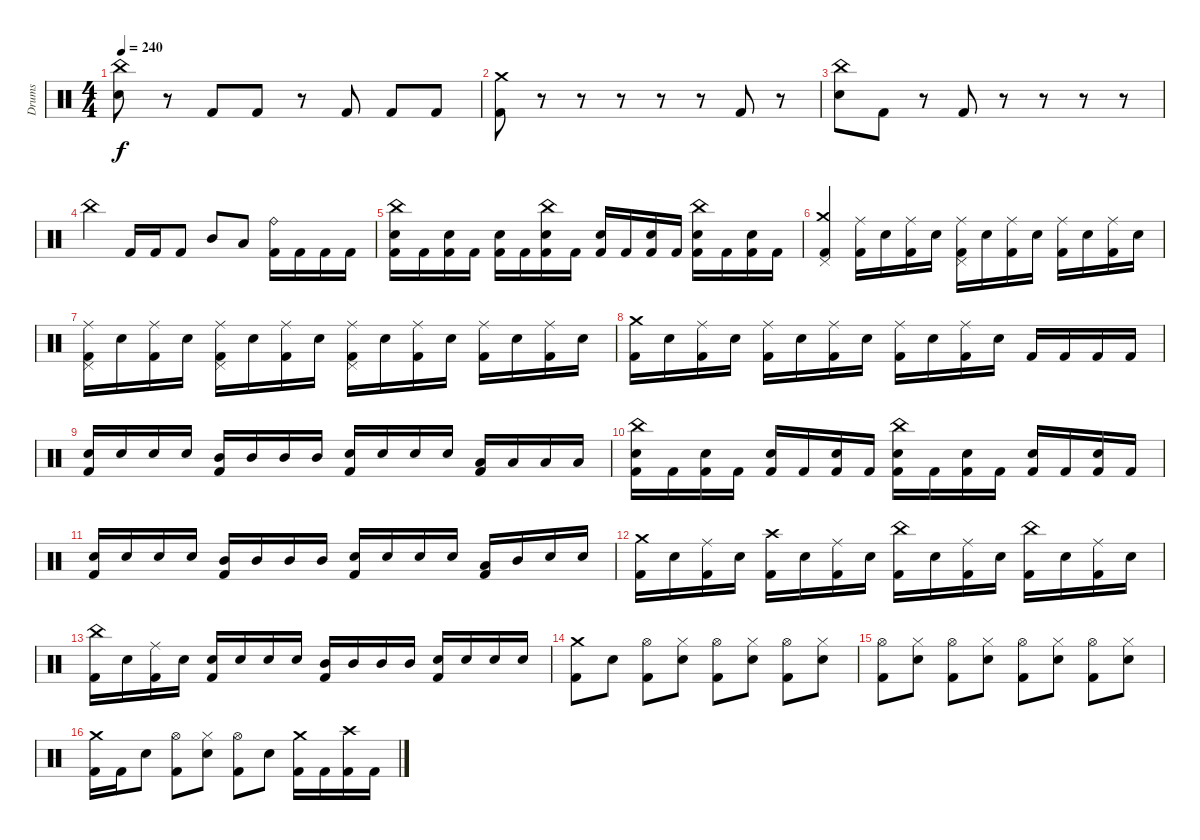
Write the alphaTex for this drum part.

\track ("Drums" "Drums") {instrument percussion}
\staff
\articulation defaults
\ts (4 4)
\tempo 240
\clef neutral
\ks c
("China (hit)" "Electric Snare (hit)").8{dy f} r.8 "Kick (hit) 2".8 "Kick (hit) 2".8 r.8 "Kick (hit) 2".8 "Kick (hit) 2".8 "Kick (hit) 2".8 |
("Crash medium (hit)" "Kick (hit) 2").8 r.8 r.8 r.8 r.8 r.8 "Kick (hit) 2".8 r.8 |
("China (hit)" "Electric Snare (hit)").8 "Kick (hit) 2".8 r.8 "Kick (hit) 2".8 r.8 r.8 r.8 r.8 |
"China (hit)".4 "Kick (hit) 2".16 "Kick (hit) 2".16 "Kick (hit) 2".8 "Mid Tom (hit)".8 "Low Tom (hit)".8 ("Ride (bell)" "Kick (hit) 2").16 "Kick (hit) 2".16 "Kick (hit) 2".16 "Kick (hit) 2".16 |
("China (hit)" "Electric Snare (hit)" "Kick (hit) 2").16 "Kick (hit) 2".16 ("Electric Snare (hit)" "Kick (hit) 2").16 "Kick (hit) 2".16 ("Electric Snare (hit)" "Kick (hit) 2").16 "Kick (hit) 2".16 ("China (hit)" "Electric Snare (hit)" "Kick (hit) 2").16 "Kick (hit) 2".16 ("Electric Snare (hit)" "Kick (hit) 2").16 "Kick (hit) 2".16 ("Electric Snare (hit)" "Kick (hit) 2").16 "Kick (hit) 2".16 ("China (hit)" "Electric Snare (hit)" "Kick (hit) 2").16 "Kick (hit) 2".16 ("Electric Snare (hit)" "Kick (hit) 2").16 "Kick (hit) 2".16 |
("Pedal Hi-Hat (hit)" "Crash medium (hit)" "Kick (hit) 2").4 ("Ride (middle)" "Kick (hit) 2").16 "Electric Snare (hit)".16 ("Ride (middle)" "Kick (hit) 2").16 "Electric Snare (hit)".16 ("Pedal Hi-Hat (hit)" "Ride (middle)" "Kick (hit) 2").16 "Electric Snare (hit)".16 ("Ride (middle)" "Kick (hit) 2").16 "Electric Snare (hit)".16 ("Ride (middle)" "Kick (hit) 2").16 "Electric Snare (hit)".16 ("Ride (middle)" "Kick (hit) 2").16 "Electric Snare (hit)".16 |
("Pedal Hi-Hat (hit)" "Ride (middle)" "Kick (hit) 2").16 "Electric Snare (hit)".16 ("Ride (middle)" "Kick (hit) 2").16 "Electric Snare (hit)".16 ("Pedal Hi-Hat (hit)" "Ride (middle)" "Kick (hit) 2").16 "Electric Snare (hit)".16 ("Ride (middle)" "Kick (hit) 2").16 "Electric Snare (hit)".16 ("Pedal Hi-Hat (hit)" "Ride (middle)" "Kick (hit) 2").16 "Electric Snare (hit)".16 ("Ride (middle)" "Kick (hit) 2").16 "Electric Snare (hit)".16 ("Ride (middle)" "Kick (hit) 2").16 "Electric Snare (hit)".16 ("Ride (middle)" "Kick (hit) 2").16 "Electric Snare (hit)".16 |
("Crash medium (hit)" "Kick (hit) 2").16 "Electric Snare (hit)".16 ("Ride (middle)" "Kick (hit) 2").16 "Electric Snare (hit)".16 ("Ride (middle)" "Kick (hit) 2").16 "Electric Snare (hit)".16 ("Ride (middle)" "Kick (hit) 2").16 "Electric Snare (hit)".16 ("Ride (middle)" "Kick (hit) 2").16 "Electric Snare (hit)".16 ("Ride (middle)" "Kick (hit) 2").16 "Electric Snare (hit)".16 "Kick (hit) 2".16 "Kick (hit) 2".16 "Kick (hit) 2".16 "Kick (hit) 2".16 |
("Electric Snare (hit)" "Kick (hit) 2").16 "Electric Snare (hit)".16 "Electric Snare (hit)".16 "Electric Snare (hit)".16 ("Mid Tom (hit)" "Kick (hit) 2").16 "Mid Tom (hit)".16 "Mid Tom (hit)".16 "Mid Tom (hit)".16 ("Electric Snare (hit)" "Kick (hit) 2").16 "Electric Snare (hit)".16 "Electric Snare (hit)".16 "Electric Snare (hit)".16 ("Low Tom (hit)" "Kick (hit) 2").16 "Low Tom (hit)".16 "Low Tom (hit)".16 "Low Tom (hit)".16 |
("China (hit)" "Electric Snare (hit)" "Kick (hit) 2").16 "Kick (hit) 2".16 ("Electric Snare (hit)" "Kick (hit) 2").16 "Kick (hit) 2".16 ("Electric Snare (hit)" "Kick (hit) 2").16 "Kick (hit) 2".16 ("Electric Snare (hit)" "Kick (hit) 2").16 "Kick (hit) 2".16 ("China (hit)" "Electric Snare (hit)" "Kick (hit) 2").16 "Kick (hit) 2".16 ("Electric Snare (hit)" "Kick (hit) 2").16 "Kick (hit) 2".16 ("Electric Snare (hit)" "Kick (hit) 2").16 "Kick (hit) 2".16 ("Electric Snare (hit)" "Kick (hit) 2").16 "Kick (hit) 2".16 |
("Electric Snare (hit)" "Kick (hit) 2").16 "Electric Snare (hit)".16 "Electric Snare (hit)".16 "Electric Snare (hit)".16 ("Mid Tom (hit)" "Kick (hit) 2").16 "Mid Tom (hit)".16 "Mid Tom (hit)".16 "Mid Tom (hit)".16 ("Electric Snare (hit)" "Kick (hit) 2").16 "Electric Snare (hit)".16 "Electric Snare (hit)".16 "Electric Snare (hit)".16 ("Low Tom (hit)" "Kick (hit) 2").16 "Mid Tom (hit)".16 "Electric Snare (hit)".16 "Electric Snare (hit)".16 |
("Crash medium (hit)" "Kick (hit) 2").16 "Electric Snare (hit)".16 ("Ride (middle)" "Kick (hit) 2").16 "Electric Snare (hit)".16 ("Crash high (hit)" "Kick (hit) 2").16 "Electric Snare (hit)".16 ("Ride (middle)" "Kick (hit) 2").16 "Electric Snare (hit)".16 ("China (hit)" "Kick (hit) 2").16 "Electric Snare (hit)".16 ("Ride (middle)" "Kick (hit) 2").16 "Electric Snare (hit)".16 ("China (hit)" "Kick (hit) 2").16 "Electric Snare (hit)".16 ("Ride (middle)" "Kick (hit) 2").16 "Electric Snare (hit)".16 |
("China (hit)" "Kick (hit) 2").16 "Electric Snare (hit)".16 ("Ride (middle)" "Kick (hit) 2").16 "Electric Snare (hit)".16 ("Electric Snare (hit)" "Kick (hit) 2").16 "Electric Snare (hit)".16 "Electric Snare (hit)".16 "Electric Snare (hit)".16 ("Mid Tom (hit)" "Kick (hit) 2").16 "Mid Tom (hit)".16 "Mid Tom (hit)".16 "Mid Tom (hit)".16 ("Electric Snare (hit)" "Kick (hit) 2").16 "Electric Snare (hit)".16 "Electric Snare (hit)".16 "Electric Snare (hit)".16 |
("Crash medium (hit)" "Kick (hit) 2").8 "Electric Snare (hit)".8 ("Hi-Hat (open)" "Kick (hit) 2").8 ("Electric Snare (hit)" "Hi-Hat (closed)").8 ("Hi-Hat (open)" "Kick (hit) 2").8 ("Electric Snare (hit)" "Hi-Hat (closed)").8 ("Hi-Hat (open)" "Kick (hit) 2").8 ("Electric Snare (hit)" "Hi-Hat (closed)").8 |
("Hi-Hat (open)" "Kick (hit) 2").8 ("Electric Snare (hit)" "Hi-Hat (closed)").8 ("Hi-Hat (open)" "Kick (hit) 2").8 ("Electric Snare (hit)" "Hi-Hat (closed)").8 ("Hi-Hat (open)" "Kick (hit) 2").8 ("Electric Snare (hit)" "Hi-Hat (closed)").8 ("Hi-Hat (open)" "Kick (hit) 2").8 ("Electric Snare (hit)" "Hi-Hat (closed)").8 |
("Crash medium (hit)" "Kick (hit) 2").16 "Kick (hit) 2".16 "Electric Snare (hit)".8 ("Hi-Hat (open)" "Kick (hit) 2").8 ("Electric Snare (hit)" "Hi-Hat (closed)").8 ("Hi-Hat (open)" "Kick (hit) 2").8 "Electric Snare (hit)".8 ("Crash medium (hit)" "Kick (hit) 2").16 "Kick (hit) 2".16 ("Crash high (hit)" "Kick (hit) 2").16 "Kick (hit) 2".16
